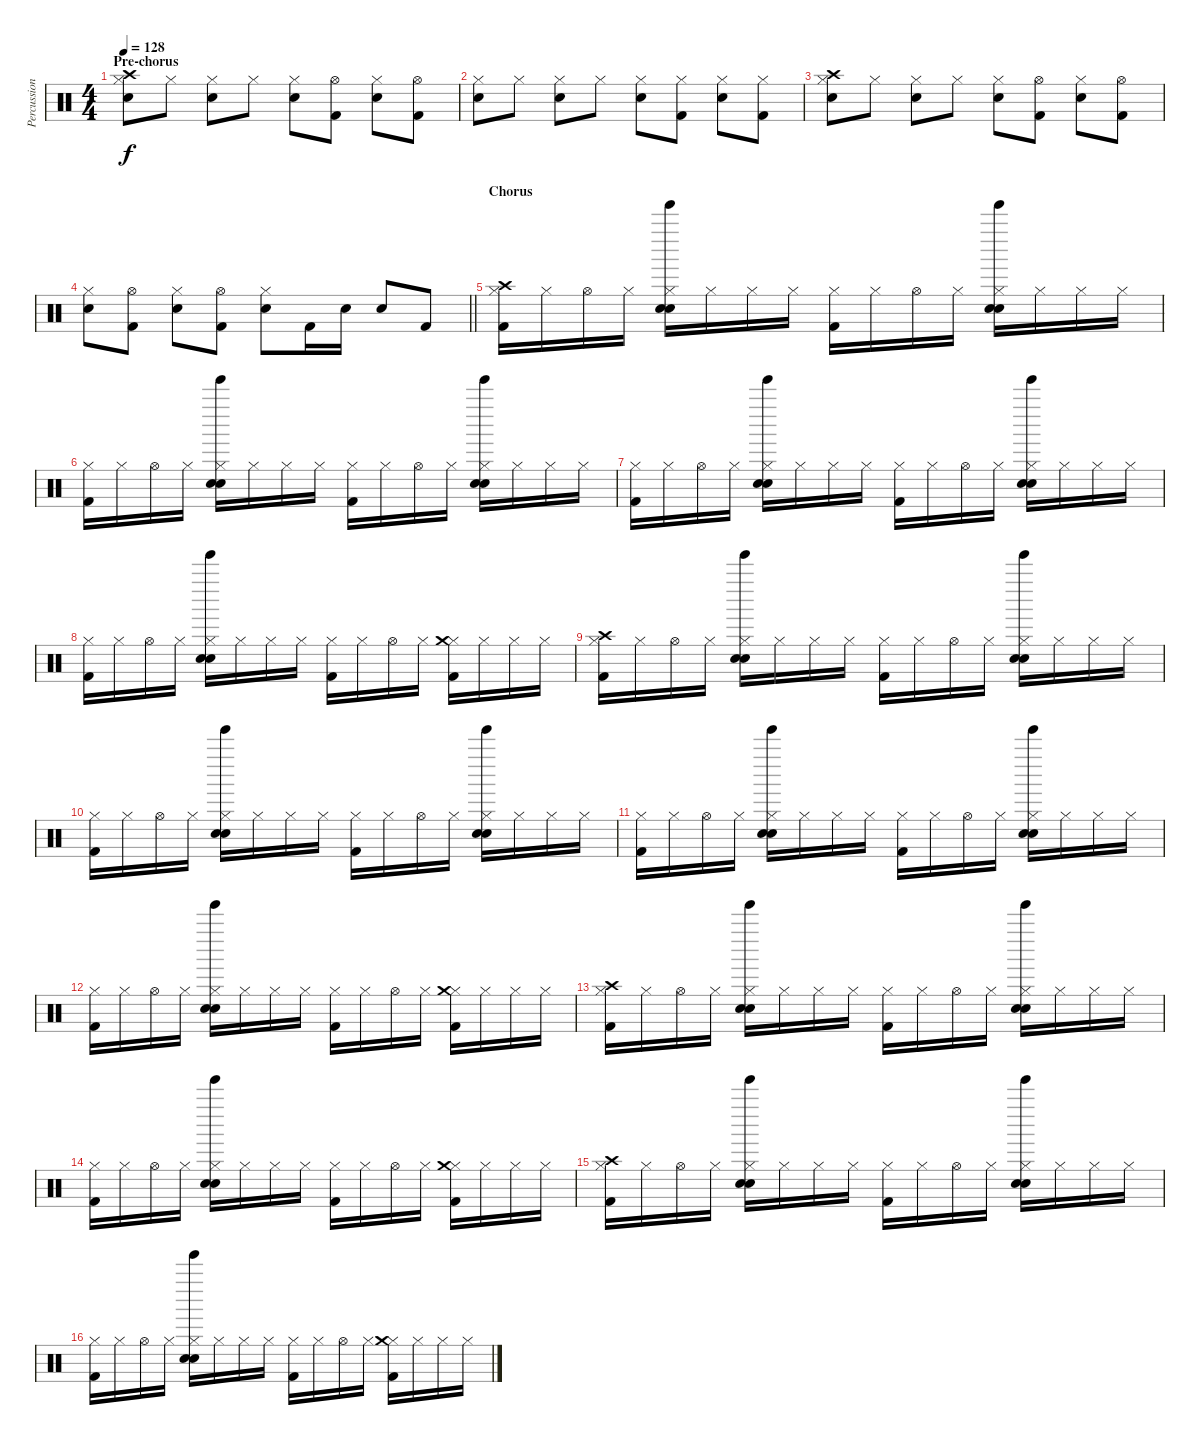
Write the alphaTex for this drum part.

\track ("Percussion" "Percussion") {instrument percussion}
\staff {score}
\articulation defaults
\ts (4 4)
\section ("" "Pre-chorus")
\tempo 128
\clef neutral
\ks c
("Hi-Hat (closed)" "Crash high (hit)" "Electric Snare (hit)").8{dy f} "Hi-Hat (closed)".8 ("Hi-Hat (closed)" "Electric Snare (hit)").8 "Hi-Hat (closed)".8 ("Hi-Hat (closed)" "Electric Snare (hit)").8 ("Hi-Hat (open)" "Kick (hit) 2").8 ("Hi-Hat (closed)" "Electric Snare (hit)").8 ("Hi-Hat (open)" "Kick (hit) 2").8 |
("Hi-Hat (closed)" "Electric Snare (hit)").8 "Hi-Hat (closed)".8 ("Hi-Hat (closed)" "Electric Snare (hit)").8 "Hi-Hat (closed)".8 ("Hi-Hat (closed)" "Electric Snare (hit)").8 ("Hi-Hat (closed)" "Kick (hit) 2").8 ("Hi-Hat (closed)" "Electric Snare (hit)").8 ("Hi-Hat (closed)" "Kick (hit) 2").8 |
("Hi-Hat (closed)" "Crash high (hit)" "Electric Snare (hit)").8 "Hi-Hat (closed)".8 ("Hi-Hat (closed)" "Electric Snare (hit)").8 "Hi-Hat (closed)".8 ("Hi-Hat (closed)" "Electric Snare (hit)").8 ("Hi-Hat (open)" "Kick (hit) 2").8 ("Hi-Hat (closed)" "Electric Snare (hit)").8 ("Hi-Hat (open)" "Kick (hit) 2").8 |
\barLineRight lightlight
("Hi-Hat (closed)" "Electric Snare (hit)").8 ("Hi-Hat (open)" "Kick (hit) 2").8 ("Hi-Hat (closed)" "Electric Snare (hit)").8 ("Hi-Hat (open)" "Kick (hit) 2").8 ("Hi-Hat (closed)" "Electric Snare (hit)").8 "Kick (hit) 2".16 "Electric Snare (hit)".16 "Electric Snare (hit)".8 "Kick (hit) 2".8 |
\section ("" "Chorus")
("Hi-Hat (closed)" "Crash high (hit)" "Kick (hit) 2").16 "Hi-Hat (closed)".16 "Hi-Hat (open)".16 "Hi-Hat (closed)".16 ("Hi-Hat (closed)" "Hand Clap (hit)" "Tinkle Bell (hit)" "Electric Snare (hit)").16 "Hi-Hat (closed)".16 "Hi-Hat (closed)".16 "Hi-Hat (closed)".16 ("Hi-Hat (closed)" "Kick (hit) 2").16 "Hi-Hat (closed)".16 "Hi-Hat (open)".16 "Hi-Hat (closed)".16 ("Hi-Hat (closed)" "Hand Clap (hit)" "Tinkle Bell (hit)" "Electric Snare (hit)").16 "Hi-Hat (closed)".16 "Hi-Hat (closed)".16 "Hi-Hat (closed)".16 |
("Hi-Hat (closed)" "Kick (hit) 2").16 "Hi-Hat (closed)".16 "Hi-Hat (open)".16 "Hi-Hat (closed)".16 ("Hi-Hat (closed)" "Hand Clap (hit)" "Tinkle Bell (hit)" "Electric Snare (hit)").16 "Hi-Hat (closed)".16 "Hi-Hat (closed)".16 "Hi-Hat (closed)".16 ("Hi-Hat (closed)" "Kick (hit) 2").16 "Hi-Hat (closed)".16 "Hi-Hat (open)".16 "Hi-Hat (closed)".16 ("Hi-Hat (closed)" "Hand Clap (hit)" "Tinkle Bell (hit)" "Electric Snare (hit)").16 "Hi-Hat (closed)".16 "Hi-Hat (closed)".16 "Hi-Hat (closed)".16 |
("Hi-Hat (closed)" "Kick (hit) 2").16 "Hi-Hat (closed)".16 "Hi-Hat (open)".16 "Hi-Hat (closed)".16 ("Hi-Hat (closed)" "Hand Clap (hit)" "Tinkle Bell (hit)" "Electric Snare (hit)").16 "Hi-Hat (closed)".16 "Hi-Hat (closed)".16 "Hi-Hat (closed)".16 ("Hi-Hat (closed)" "Kick (hit) 2").16 "Hi-Hat (closed)".16 "Hi-Hat (open)".16 "Hi-Hat (closed)".16 ("Hi-Hat (closed)" "Hand Clap (hit)" "Tinkle Bell (hit)" "Electric Snare (hit)").16 "Hi-Hat (closed)".16 "Hi-Hat (closed)".16 "Hi-Hat (closed)".16 |
("Hi-Hat (closed)" "Kick (hit) 2").16 "Hi-Hat (closed)".16 "Hi-Hat (open)".16 "Hi-Hat (closed)".16 ("Hi-Hat (closed)" "Hand Clap (hit)" "Tinkle Bell (hit)" "Electric Snare (hit)").16 "Hi-Hat (closed)".16 "Hi-Hat (closed)".16 "Hi-Hat (closed)".16 ("Hi-Hat (closed)" "Kick (hit) 2").16 "Hi-Hat (closed)".16 "Hi-Hat (open)".16 "Hi-Hat (closed)".16 ("Hi-Hat (closed)" "Crash medium (hit)" "Kick (hit) 2").16 "Hi-Hat (closed)".16 "Hi-Hat (closed)".16 "Hi-Hat (closed)".16 |
("Hi-Hat (closed)" "Crash high (hit)" "Kick (hit) 2").16 "Hi-Hat (closed)".16 "Hi-Hat (open)".16 "Hi-Hat (closed)".16 ("Hi-Hat (closed)" "Hand Clap (hit)" "Tinkle Bell (hit)" "Electric Snare (hit)").16 "Hi-Hat (closed)".16 "Hi-Hat (closed)".16 "Hi-Hat (closed)".16 ("Hi-Hat (closed)" "Kick (hit) 2").16 "Hi-Hat (closed)".16 "Hi-Hat (open)".16 "Hi-Hat (closed)".16 ("Hi-Hat (closed)" "Hand Clap (hit)" "Tinkle Bell (hit)" "Electric Snare (hit)").16 "Hi-Hat (closed)".16 "Hi-Hat (closed)".16 "Hi-Hat (closed)".16 |
("Hi-Hat (closed)" "Kick (hit) 2").16 "Hi-Hat (closed)".16 "Hi-Hat (open)".16 "Hi-Hat (closed)".16 ("Hi-Hat (closed)" "Hand Clap (hit)" "Tinkle Bell (hit)" "Electric Snare (hit)").16 "Hi-Hat (closed)".16 "Hi-Hat (closed)".16 "Hi-Hat (closed)".16 ("Hi-Hat (closed)" "Kick (hit) 2").16 "Hi-Hat (closed)".16 "Hi-Hat (open)".16 "Hi-Hat (closed)".16 ("Hi-Hat (closed)" "Hand Clap (hit)" "Tinkle Bell (hit)" "Electric Snare (hit)").16 "Hi-Hat (closed)".16 "Hi-Hat (closed)".16 "Hi-Hat (closed)".16 |
("Hi-Hat (closed)" "Kick (hit) 2").16 "Hi-Hat (closed)".16 "Hi-Hat (open)".16 "Hi-Hat (closed)".16 ("Hi-Hat (closed)" "Hand Clap (hit)" "Tinkle Bell (hit)" "Electric Snare (hit)").16 "Hi-Hat (closed)".16 "Hi-Hat (closed)".16 "Hi-Hat (closed)".16 ("Hi-Hat (closed)" "Kick (hit) 2").16 "Hi-Hat (closed)".16 "Hi-Hat (open)".16 "Hi-Hat (closed)".16 ("Hi-Hat (closed)" "Hand Clap (hit)" "Tinkle Bell (hit)" "Electric Snare (hit)").16 "Hi-Hat (closed)".16 "Hi-Hat (closed)".16 "Hi-Hat (closed)".16 |
("Hi-Hat (closed)" "Kick (hit) 2").16 "Hi-Hat (closed)".16 "Hi-Hat (open)".16 "Hi-Hat (closed)".16 ("Hi-Hat (closed)" "Hand Clap (hit)" "Tinkle Bell (hit)" "Electric Snare (hit)").16 "Hi-Hat (closed)".16 "Hi-Hat (closed)".16 "Hi-Hat (closed)".16 ("Hi-Hat (closed)" "Kick (hit) 2").16 "Hi-Hat (closed)".16 "Hi-Hat (open)".16 "Hi-Hat (closed)".16 ("Hi-Hat (closed)" "Crash medium (hit)" "Kick (hit) 2").16 "Hi-Hat (closed)".16 "Hi-Hat (closed)".16 "Hi-Hat (closed)".16 |
("Hi-Hat (closed)" "Crash high (hit)" "Kick (hit) 2").16 "Hi-Hat (closed)".16 "Hi-Hat (open)".16 "Hi-Hat (closed)".16 ("Hi-Hat (closed)" "Hand Clap (hit)" "Tinkle Bell (hit)" "Electric Snare (hit)").16 "Hi-Hat (closed)".16 "Hi-Hat (closed)".16 "Hi-Hat (closed)".16 ("Hi-Hat (closed)" "Kick (hit) 2").16 "Hi-Hat (closed)".16 "Hi-Hat (open)".16 "Hi-Hat (closed)".16 ("Hi-Hat (closed)" "Hand Clap (hit)" "Tinkle Bell (hit)" "Electric Snare (hit)").16 "Hi-Hat (closed)".16 "Hi-Hat (closed)".16 "Hi-Hat (closed)".16 |
("Hi-Hat (closed)" "Kick (hit) 2").16 "Hi-Hat (closed)".16 "Hi-Hat (open)".16 "Hi-Hat (closed)".16 ("Hi-Hat (closed)" "Hand Clap (hit)" "Tinkle Bell (hit)" "Electric Snare (hit)").16 "Hi-Hat (closed)".16 "Hi-Hat (closed)".16 "Hi-Hat (closed)".16 ("Hi-Hat (closed)" "Kick (hit) 2").16 "Hi-Hat (closed)".16 "Hi-Hat (open)".16 "Hi-Hat (closed)".16 ("Hi-Hat (closed)" "Crash medium (hit)" "Kick (hit) 2").16 "Hi-Hat (closed)".16 "Hi-Hat (closed)".16 "Hi-Hat (closed)".16 |
("Hi-Hat (closed)" "Crash high (hit)" "Kick (hit) 2").16 "Hi-Hat (closed)".16 "Hi-Hat (open)".16 "Hi-Hat (closed)".16 ("Hi-Hat (closed)" "Hand Clap (hit)" "Tinkle Bell (hit)" "Electric Snare (hit)").16 "Hi-Hat (closed)".16 "Hi-Hat (closed)".16 "Hi-Hat (closed)".16 ("Hi-Hat (closed)" "Kick (hit) 2").16 "Hi-Hat (closed)".16 "Hi-Hat (open)".16 "Hi-Hat (closed)".16 ("Hi-Hat (closed)" "Hand Clap (hit)" "Tinkle Bell (hit)" "Electric Snare (hit)").16 "Hi-Hat (closed)".16 "Hi-Hat (closed)".16 "Hi-Hat (closed)".16 |
("Hi-Hat (closed)" "Kick (hit) 2").16 "Hi-Hat (closed)".16 "Hi-Hat (open)".16 "Hi-Hat (closed)".16 ("Hi-Hat (closed)" "Hand Clap (hit)" "Tinkle Bell (hit)" "Electric Snare (hit)").16 "Hi-Hat (closed)".16 "Hi-Hat (closed)".16 "Hi-Hat (closed)".16 ("Hi-Hat (closed)" "Kick (hit) 2").16 "Hi-Hat (closed)".16 "Hi-Hat (open)".16 "Hi-Hat (closed)".16 ("Hi-Hat (closed)" "Crash medium (hit)" "Kick (hit) 2").16 "Hi-Hat (closed)".16 "Hi-Hat (closed)".16 "Hi-Hat (closed)".16
